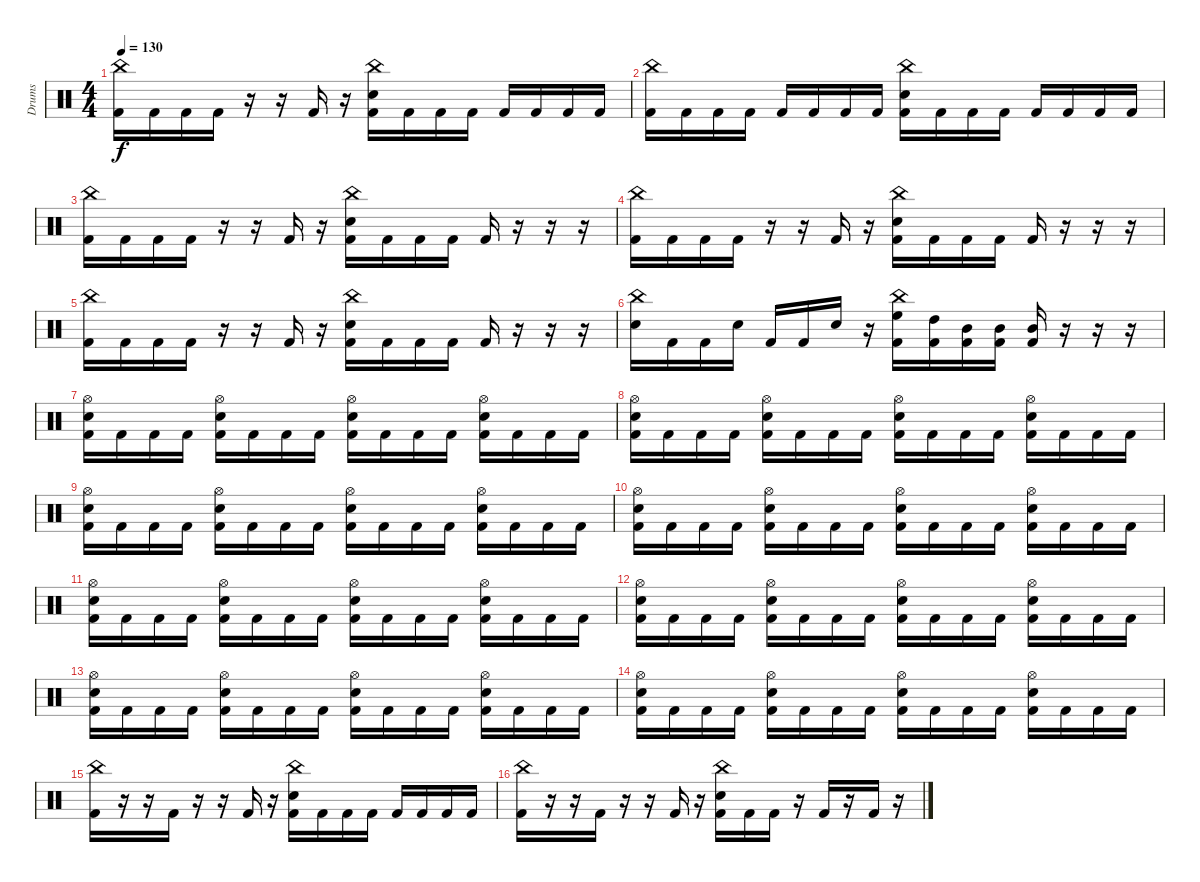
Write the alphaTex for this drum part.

\track ("Drums" "Drums") {instrument percussion}
\staff {score}
\articulation defaults
\ts (4 4)
\tempo 130
\clef neutral
\ks c
("China (hit)" "Kick (hit) 2").16{dy f} "Kick (hit) 2".16 "Kick (hit) 2".16 "Kick (hit) 2".16 r.16 r.16 "Kick (hit) 2".16 r.16 ("China (hit)" "Snare (hit) 2" "Kick (hit) 2").16 "Kick (hit) 2".16 "Kick (hit) 2".16 "Kick (hit) 2".16 "Kick (hit) 2".16 "Kick (hit) 2".16 "Kick (hit) 2".16 "Kick (hit) 2".16 |
("China (hit)" "Kick (hit) 2").16 "Kick (hit) 2".16 "Kick (hit) 2".16 "Kick (hit) 2".16 "Kick (hit) 2".16 "Kick (hit) 2".16 "Kick (hit) 2".16 "Kick (hit) 2".16 ("China (hit)" "Snare (hit) 2" "Kick (hit) 2").16 "Kick (hit) 2".16 "Kick (hit) 2".16 "Kick (hit) 2".16 "Kick (hit) 2".16 "Kick (hit) 2".16 "Kick (hit) 2".16 "Kick (hit) 2".16 |
("China (hit)" "Kick (hit) 2").16 "Kick (hit) 2".16 "Kick (hit) 2".16 "Kick (hit) 2".16 r.16 r.16 "Kick (hit) 2".16 r.16 ("China (hit)" "Snare (hit) 2" "Kick (hit) 2").16 "Kick (hit) 2".16 "Kick (hit) 2".16 "Kick (hit) 2".16 "Kick (hit) 2".16 r.16 r.16 r.16 |
("China (hit)" "Kick (hit) 2").16 "Kick (hit) 2".16 "Kick (hit) 2".16 "Kick (hit) 2".16 r.16 r.16 "Kick (hit) 2".16 r.16 ("China (hit)" "Snare (hit) 2" "Kick (hit) 2").16 "Kick (hit) 2".16 "Kick (hit) 2".16 "Kick (hit) 2".16 "Kick (hit) 2".16 r.16 r.16 r.16 |
("China (hit)" "Kick (hit) 2").16 "Kick (hit) 2".16 "Kick (hit) 2".16 "Kick (hit) 2".16 r.16 r.16 "Kick (hit) 2".16 r.16 ("China (hit)" "Snare (hit) 2" "Kick (hit) 2").16 "Kick (hit) 2".16 "Kick (hit) 2".16 "Kick (hit) 2".16 "Kick (hit) 2".16 r.16 r.16 r.16 |
("China (hit)" "Snare (hit) 2").16 "Kick (hit) 2".16 "Kick (hit) 2".16 "Snare (hit) 2".16 "Kick (hit) 2".16 "Kick (hit) 2".16 "Snare (hit) 2".16 r.16 ("China (hit)" "High Floor Tom (hit)" "Kick (hit) 2").16 ("High Tom (hit)" "Kick (hit) 2").16 ("Mid Tom (hit)" "Kick (hit) 2").16 ("Mid Tom (hit)" "Kick (hit) 2").16 ("Mid Tom (hit)" "Kick (hit) 2").16 r.16 r.16 r.16 |
("Hi-Hat (open)" "Snare (hit) 2" "Kick (hit) 2").16 "Kick (hit) 2".16 "Kick (hit) 2".16 "Kick (hit) 2".16 ("Hi-Hat (open)" "Snare (hit) 2" "Kick (hit) 2").16 "Kick (hit) 2".16 "Kick (hit) 2".16 "Kick (hit) 2".16 ("Hi-Hat (open)" "Snare (hit) 2" "Kick (hit) 2").16 "Kick (hit) 2".16 "Kick (hit) 2".16 "Kick (hit) 2".16 ("Hi-Hat (open)" "Snare (hit) 2" "Kick (hit) 2").16 "Kick (hit) 2".16 "Kick (hit) 2".16 "Kick (hit) 2".16 |
("Hi-Hat (open)" "Snare (hit) 2" "Kick (hit) 2").16 "Kick (hit) 2".16 "Kick (hit) 2".16 "Kick (hit) 2".16 ("Hi-Hat (open)" "Snare (hit) 2" "Kick (hit) 2").16 "Kick (hit) 2".16 "Kick (hit) 2".16 "Kick (hit) 2".16 ("Hi-Hat (open)" "Snare (hit) 2" "Kick (hit) 2").16 "Kick (hit) 2".16 "Kick (hit) 2".16 "Kick (hit) 2".16 ("Hi-Hat (open)" "Snare (hit) 2" "Kick (hit) 2").16 "Kick (hit) 2".16 "Kick (hit) 2".16 "Kick (hit) 2".16 |
("Hi-Hat (open)" "Snare (hit) 2" "Kick (hit) 2").16 "Kick (hit) 2".16 "Kick (hit) 2".16 "Kick (hit) 2".16 ("Hi-Hat (open)" "Snare (hit) 2" "Kick (hit) 2").16 "Kick (hit) 2".16 "Kick (hit) 2".16 "Kick (hit) 2".16 ("Hi-Hat (open)" "Snare (hit) 2" "Kick (hit) 2").16 "Kick (hit) 2".16 "Kick (hit) 2".16 "Kick (hit) 2".16 ("Hi-Hat (open)" "Snare (hit) 2" "Kick (hit) 2").16 "Kick (hit) 2".16 "Kick (hit) 2".16 "Kick (hit) 2".16 |
("Hi-Hat (open)" "Snare (hit) 2" "Kick (hit) 2").16 "Kick (hit) 2".16 "Kick (hit) 2".16 "Kick (hit) 2".16 ("Hi-Hat (open)" "Snare (hit) 2" "Kick (hit) 2").16 "Kick (hit) 2".16 "Kick (hit) 2".16 "Kick (hit) 2".16 ("Hi-Hat (open)" "Snare (hit) 2" "Kick (hit) 2").16 "Kick (hit) 2".16 "Kick (hit) 2".16 "Kick (hit) 2".16 ("Hi-Hat (open)" "Snare (hit) 2" "Kick (hit) 2").16 "Kick (hit) 2".16 "Kick (hit) 2".16 "Kick (hit) 2".16 |
("Hi-Hat (open)" "Snare (hit) 2" "Kick (hit) 2").16 "Kick (hit) 2".16 "Kick (hit) 2".16 "Kick (hit) 2".16 ("Hi-Hat (open)" "Snare (hit) 2" "Kick (hit) 2").16 "Kick (hit) 2".16 "Kick (hit) 2".16 "Kick (hit) 2".16 ("Hi-Hat (open)" "Snare (hit) 2" "Kick (hit) 2").16 "Kick (hit) 2".16 "Kick (hit) 2".16 "Kick (hit) 2".16 ("Hi-Hat (open)" "Snare (hit) 2" "Kick (hit) 2").16 "Kick (hit) 2".16 "Kick (hit) 2".16 "Kick (hit) 2".16 |
("Hi-Hat (open)" "Snare (hit) 2" "Kick (hit) 2").16 "Kick (hit) 2".16 "Kick (hit) 2".16 "Kick (hit) 2".16 ("Hi-Hat (open)" "Snare (hit) 2" "Kick (hit) 2").16 "Kick (hit) 2".16 "Kick (hit) 2".16 "Kick (hit) 2".16 ("Hi-Hat (open)" "Snare (hit) 2" "Kick (hit) 2").16 "Kick (hit) 2".16 "Kick (hit) 2".16 "Kick (hit) 2".16 ("Hi-Hat (open)" "Snare (hit) 2" "Kick (hit) 2").16 "Kick (hit) 2".16 "Kick (hit) 2".16 "Kick (hit) 2".16 |
("Hi-Hat (open)" "Snare (hit) 2" "Kick (hit) 2").16 "Kick (hit) 2".16 "Kick (hit) 2".16 "Kick (hit) 2".16 ("Hi-Hat (open)" "Snare (hit) 2" "Kick (hit) 2").16 "Kick (hit) 2".16 "Kick (hit) 2".16 "Kick (hit) 2".16 ("Hi-Hat (open)" "Snare (hit) 2" "Kick (hit) 2").16 "Kick (hit) 2".16 "Kick (hit) 2".16 "Kick (hit) 2".16 ("Hi-Hat (open)" "Snare (hit) 2" "Kick (hit) 2").16 "Kick (hit) 2".16 "Kick (hit) 2".16 "Kick (hit) 2".16 |
("Hi-Hat (open)" "Snare (hit) 2" "Kick (hit) 2").16 "Kick (hit) 2".16 "Kick (hit) 2".16 "Kick (hit) 2".16 ("Hi-Hat (open)" "Snare (hit) 2" "Kick (hit) 2").16 "Kick (hit) 2".16 "Kick (hit) 2".16 "Kick (hit) 2".16 ("Hi-Hat (open)" "Snare (hit) 2" "Kick (hit) 2").16 "Kick (hit) 2".16 "Kick (hit) 2".16 "Kick (hit) 2".16 ("Hi-Hat (open)" "Snare (hit) 2" "Kick (hit) 2").16 "Kick (hit) 2".16 "Kick (hit) 2".16 "Kick (hit) 2".16 |
("China (hit)" "Kick (hit) 2").16 r.16 r.16 "Kick (hit) 2".16 r.16 r.16 "Kick (hit) 2".16 r.16 ("China (hit)" "Snare (hit) 2" "Kick (hit) 2").16 "Kick (hit) 2".16 "Kick (hit) 2".16 "Kick (hit) 2".16 "Kick (hit) 2".16 "Kick (hit) 2".16 "Kick (hit) 2".16 "Kick (hit) 2".16 |
("China (hit)" "Kick (hit) 2").16 r.16 r.16 "Kick (hit) 2".16 r.16 r.16 "Kick (hit) 2".16 r.16 ("China (hit)" "Snare (hit) 2" "Kick (hit) 2").16 "Kick (hit) 2".16 "Kick (hit) 2".16 r.16 "Kick (hit) 2".16 r.16 "Kick (hit) 2".16 r.16
